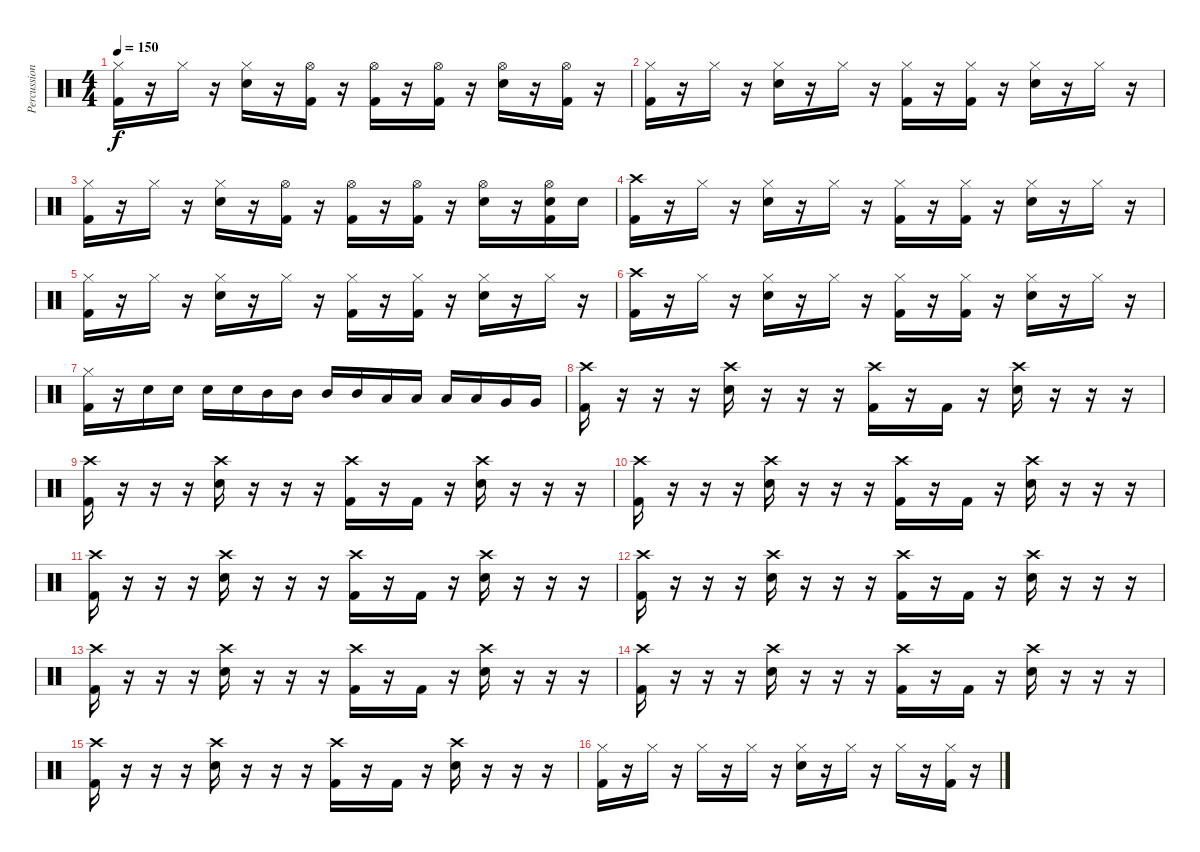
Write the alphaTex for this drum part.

\track ("Percussion" "Percussion") {instrument percussion}
\staff {score}
\articulation defaults
\ts (4 4)
\tempo 150
\clef neutral
\ks c
("Hi-Hat (closed)" "Kick (hit) 2").16{dy f} r.16 "Hi-Hat (closed)".16 r.16 ("Hi-Hat (closed)" "Electric Snare (hit)").16 r.16 ("Hi-Hat (open)" "Kick (hit) 2").16 r.16 ("Hi-Hat (open)" "Kick (hit) 2").16 r.16 ("Hi-Hat (open)" "Kick (hit) 2").16 r.16 ("Hi-Hat (open)" "Electric Snare (hit)").16 r.16 ("Hi-Hat (open)" "Kick (hit) 2").16 r.16 |
("Hi-Hat (closed)" "Kick (hit) 2").16 r.16 "Hi-Hat (closed)".16 r.16 ("Hi-Hat (closed)" "Electric Snare (hit)").16 r.16 "Hi-Hat (closed)".16 r.16 ("Hi-Hat (closed)" "Kick (hit) 2").16 r.16 ("Hi-Hat (closed)" "Kick (hit) 2").16 r.16 ("Hi-Hat (closed)" "Electric Snare (hit)").16 r.16 "Hi-Hat (closed)".16 r.16 |
("Hi-Hat (closed)" "Kick (hit) 2").16 r.16 "Hi-Hat (closed)".16 r.16 ("Hi-Hat (closed)" "Electric Snare (hit)").16 r.16 ("Hi-Hat (open)" "Kick (hit) 2").16 r.16 ("Hi-Hat (open)" "Kick (hit) 2").16 r.16 ("Hi-Hat (open)" "Kick (hit) 2").16 r.16 ("Hi-Hat (open)" "Electric Snare (hit)").16 r.16 ("Hi-Hat (open)" "Electric Snare (hit)" "Kick (hit) 2").16 "Electric Snare (hit)".16 |
("Crash high (hit)" "Kick (hit) 2").16 r.16 "Hi-Hat (closed)".16 r.16 ("Hi-Hat (closed)" "Electric Snare (hit)").16 r.16 "Hi-Hat (closed)".16 r.16 ("Hi-Hat (closed)" "Kick (hit) 2").16 r.16 ("Hi-Hat (closed)" "Kick (hit) 2").16 r.16 ("Hi-Hat (closed)" "Electric Snare (hit)").16 r.16 "Hi-Hat (closed)".16 r.16 |
("Hi-Hat (closed)" "Kick (hit) 2").16 r.16 "Hi-Hat (closed)".16 r.16 ("Hi-Hat (closed)" "Electric Snare (hit)").16 r.16 "Hi-Hat (closed)".16 r.16 ("Hi-Hat (closed)" "Kick (hit) 2").16 r.16 ("Hi-Hat (closed)" "Kick (hit) 2").16 r.16 ("Hi-Hat (closed)" "Electric Snare (hit)").16 r.16 "Hi-Hat (closed)".16 r.16 |
("Crash high (hit)" "Kick (hit) 2").16 r.16 "Hi-Hat (closed)".16 r.16 ("Hi-Hat (closed)" "Electric Snare (hit)").16 r.16 "Hi-Hat (closed)".16 r.16 ("Hi-Hat (closed)" "Kick (hit) 2").16 r.16 ("Hi-Hat (closed)" "Kick (hit) 2").16 r.16 ("Hi-Hat (closed)" "Electric Snare (hit)").16 r.16 "Hi-Hat (closed)".16 r.16 |
("Hi-Hat (closed)" "Kick (hit) 2").16 r.16 "Electric Snare (hit)".16 "Electric Snare (hit)".16 "Electric Snare (hit)".16 "Electric Snare (hit)".16 "Mid Tom (hit)".16 "Mid Tom (hit)".16 "Mid Tom (hit)".16 "Mid Tom (hit)".16 "Low Tom (hit)".16 "Low Tom (hit)".16 "Low Tom (hit)".16 "Low Tom (hit)".16 "Very Low Tom (hit)".16 "Very Low Tom (hit)".16 |
("Crash high (hit)" "Kick (hit) 2").16 r.16 r.16 r.16 ("Crash high (hit)" "Electric Snare (hit)").16 r.16 r.16 r.16 ("Crash high (hit)" "Kick (hit) 2").16 r.16 "Kick (hit) 2".16 r.16 ("Crash high (hit)" "Electric Snare (hit)").16 r.16 r.16 r.16 |
("Crash high (hit)" "Kick (hit) 2").16 r.16 r.16 r.16 ("Crash high (hit)" "Electric Snare (hit)").16 r.16 r.16 r.16 ("Crash high (hit)" "Kick (hit) 2").16 r.16 "Kick (hit) 2".16 r.16 ("Crash high (hit)" "Electric Snare (hit)").16 r.16 r.16 r.16 |
("Crash high (hit)" "Kick (hit) 2").16 r.16 r.16 r.16 ("Crash high (hit)" "Electric Snare (hit)").16 r.16 r.16 r.16 ("Crash high (hit)" "Kick (hit) 2").16 r.16 "Kick (hit) 2".16 r.16 ("Crash high (hit)" "Electric Snare (hit)").16 r.16 r.16 r.16 |
("Crash high (hit)" "Kick (hit) 2").16 r.16 r.16 r.16 ("Crash high (hit)" "Electric Snare (hit)").16 r.16 r.16 r.16 ("Crash high (hit)" "Kick (hit) 2").16 r.16 "Kick (hit) 2".16 r.16 ("Crash high (hit)" "Electric Snare (hit)").16 r.16 r.16 r.16 |
("Crash high (hit)" "Kick (hit) 2").16 r.16 r.16 r.16 ("Crash high (hit)" "Electric Snare (hit)").16 r.16 r.16 r.16 ("Crash high (hit)" "Kick (hit) 2").16 r.16 "Kick (hit) 2".16 r.16 ("Crash high (hit)" "Electric Snare (hit)").16 r.16 r.16 r.16 |
("Crash high (hit)" "Kick (hit) 2").16 r.16 r.16 r.16 ("Crash high (hit)" "Electric Snare (hit)").16 r.16 r.16 r.16 ("Crash high (hit)" "Kick (hit) 2").16 r.16 "Kick (hit) 2".16 r.16 ("Crash high (hit)" "Electric Snare (hit)").16 r.16 r.16 r.16 |
("Crash high (hit)" "Kick (hit) 2").16 r.16 r.16 r.16 ("Crash high (hit)" "Electric Snare (hit)").16 r.16 r.16 r.16 ("Crash high (hit)" "Kick (hit) 2").16 r.16 "Kick (hit) 2".16 r.16 ("Crash high (hit)" "Electric Snare (hit)").16 r.16 r.16 r.16 |
("Crash high (hit)" "Kick (hit) 2").16 r.16 r.16 r.16 ("Crash high (hit)" "Electric Snare (hit)").16 r.16 r.16 r.16 ("Crash high (hit)" "Kick (hit) 2").16 r.16 "Kick (hit) 2".16 r.16 ("Crash high (hit)" "Electric Snare (hit)").16 r.16 r.16 r.16 |
("Hi-Hat (closed)" "Kick (hit) 2").16 r.16 "Hi-Hat (closed)".16 r.16 "Hi-Hat (closed)".16 r.16 "Hi-Hat (closed)".16 r.16 ("Hi-Hat (closed)" "Electric Snare (hit)").16 r.16 "Hi-Hat (closed)".16 r.16 "Hi-Hat (closed)".16 r.16 ("Hi-Hat (closed)" "Kick (hit) 2").16 r.16
